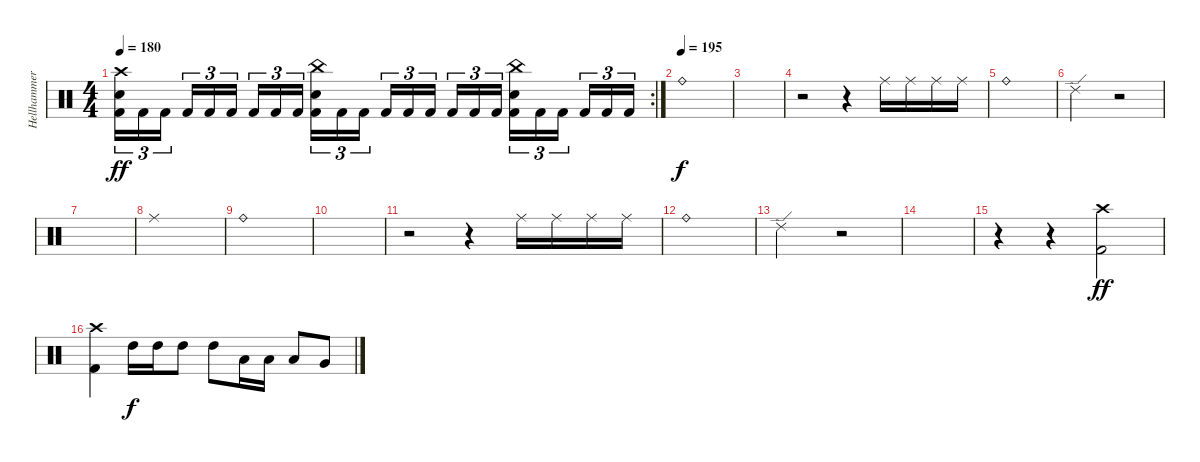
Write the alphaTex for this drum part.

\track ("Hellhammer" "Hellhammer") {instrument percussion}
\staff {score}
\articulation defaults
\rc 2
\ts (4 4)
\tempo 180
\clef neutral
\ks c
("Crash high (hit)" "Electric Snare (hit)" "Kick (hit) 2").16{tu (3 2) dy ff} "Kick (hit) 2".16{tu (3 2)} "Kick (hit) 2".16{tu (3 2) beam splitsecondary} "Kick (hit) 2".16{tu (3 2)} "Kick (hit) 2".16{tu (3 2)} "Kick (hit) 2".16{tu (3 2)} "Kick (hit) 2".16{tu (3 2)} "Kick (hit) 2".16{tu (3 2)} "Kick (hit) 2".16{tu (3 2) beam splitsecondary} ("China (hit)" "Electric Snare (hit)" "Kick (hit) 2").16{tu (3 2)} "Kick (hit) 2".16{tu (3 2)} "Kick (hit) 2".16{tu (3 2)} "Kick (hit) 2".16{tu (3 2)} "Kick (hit) 2".16{tu (3 2)} "Kick (hit) 2".16{tu (3 2) beam splitsecondary} "Kick (hit) 2".16{tu (3 2)} "Kick (hit) 2".16{tu (3 2)} "Kick (hit) 2".16{tu (3 2)} ("China (hit)" "Electric Snare (hit)" "Kick (hit) 2").16{tu (3 2)} "Kick (hit) 2".16{tu (3 2)} "Kick (hit) 2".16{tu (3 2) beam splitsecondary} "Kick (hit) 2".16{tu (3 2)} "Kick (hit) 2".16{tu (3 2)} "Kick (hit) 2".16{tu (3 2)} |
\tempo (195)
"Ride (bell)".1{dy f} |
|
r.2 r.4 "Ride (middle)".16 "Ride (middle)".16 "Ride (middle)".16 "Ride (middle)".16 |
"Ride (bell)".1 |
"Ride (edge) 2".2 r.2 |
|
"Ride (middle)".1 |
"Ride (bell)".1 |
|
r.2 r.4 "Ride (middle)".16 "Ride (middle)".16 "Ride (middle)".16 "Ride (middle)".16 |
"Ride (bell)".1 |
"Ride (edge) 2".2 r.2 |
|
r.4 r.4 ("Crash high (hit)" "Kick (hit) 2").2{dy ff} |
("Crash high (hit)" "Kick (hit) 2").4 "High Tom (hit)".16{dy f} "High Tom (hit)".16 "High Tom (hit)".8 "High Tom (hit)".8 "Low Tom (hit)".16 "Low Tom (hit)".16 "Low Tom (hit)".8 "Very Low Tom (hit)".8
